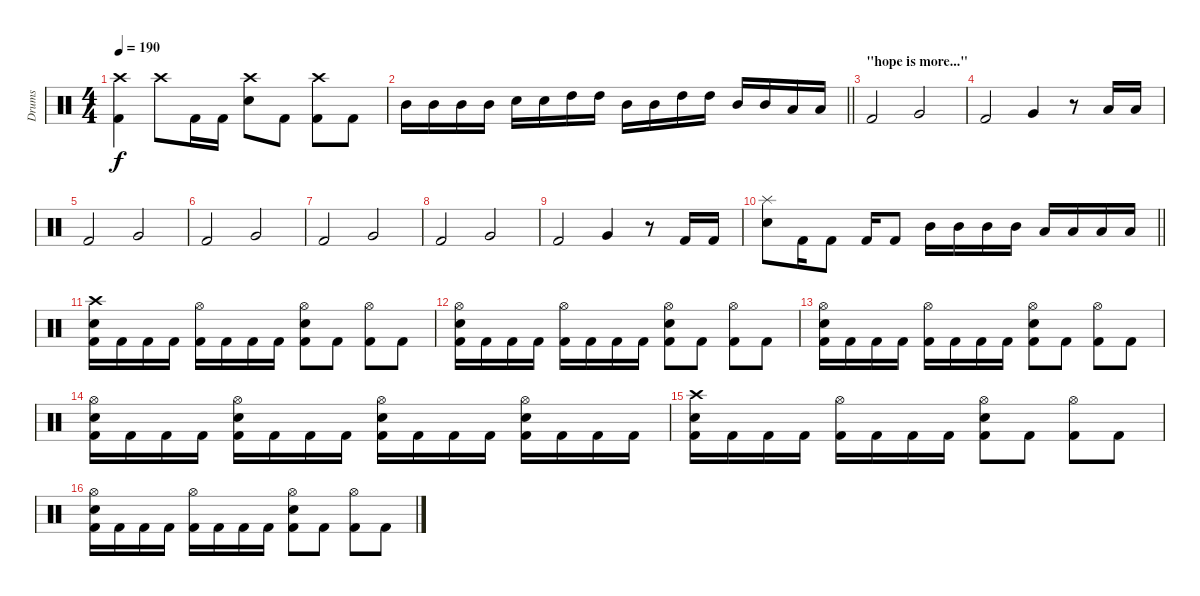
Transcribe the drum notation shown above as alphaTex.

\track ("Drums" "Drums") {instrument percussion}
\staff {score}
\articulation defaults
\ts (4 4)
\tempo 190
\clef neutral
\ks c
("Crash high (hit)" "Kick (hit) 2").4{dy f} "Crash high (hit)".8 "Kick (hit) 2".16 "Kick (hit) 2".16 ("Crash high (hit)" "Snare (hit) 2").8 "Kick (hit) 2".8 ("Crash high (hit)" "Kick (hit) 2").8 "Kick (hit) 2".8 |
\barLineRight lightlight "Mid Tom (hit)".16 "Mid Tom (hit)".16 "Mid Tom (hit)".16 "Mid Tom (hit)".16 "Snare (hit) 2".16 "Snare (hit) 2".16 "High Tom (hit)".16 "High Tom (hit)".16 "Mid Tom (hit)".16 "Mid Tom (hit)".16 "High Tom (hit)".16 "High Tom (hit)".16 "Mid Tom (hit)".16 "Mid Tom (hit)".16 "Low Tom (hit)".16 "Low Tom (hit)".16
|
\section ("" "\"hope is more...\"")
"Kick (hit) 2".2 "Very Low Tom (hit)".2 |
"Kick (hit) 2".2 "Very Low Tom (hit)".4 r.8 "Low Tom (hit)".16 "Low Tom (hit)".16 |
"Kick (hit) 2".2 "Very Low Tom (hit)".2 |
"Kick (hit) 2".2 "Very Low Tom (hit)".2 |
"Kick (hit) 2".2 "Very Low Tom (hit)".2 |
"Kick (hit) 2".2 "Very Low Tom (hit)".2 |
"Kick (hit) 2".2 "Very Low Tom (hit)".4 r.8 "Kick (hit) 2".16 "Kick (hit) 2".16 |
\barLineRight lightlight
("Splash (hit)" "Snare (hit) 2").8 "Kick (hit) 2".16 "Kick (hit) 2".8 "Kick (hit) 2".16 "Kick (hit) 2".8 "Mid Tom (hit)".16 "Mid Tom (hit)".16 "Mid Tom (hit)".16 "Mid Tom (hit)".16 "Low Tom (hit)".16 "Low Tom (hit)".16 "Low Tom (hit)".16 "Low Tom (hit)".16 |
\section ("" "")
("Crash high (hit)" "Snare (hit) 2" "Kick (hit) 2").16 "Kick (hit) 2".16 "Kick (hit) 2".16 "Kick (hit) 2".16 ("Hi-Hat (open)" "Kick (hit) 2").16 "Kick (hit) 2".16 "Kick (hit) 2".16 "Kick (hit) 2".16 ("Hi-Hat (open)" "Snare (hit) 2" "Kick (hit) 2").8 "Kick (hit) 2".8 ("Hi-Hat (open)" "Kick (hit) 2").8 "Kick (hit) 2".8 |
("Hi-Hat (open)" "Snare (hit) 2" "Kick (hit) 2").16 "Kick (hit) 2".16 "Kick (hit) 2".16 "Kick (hit) 2".16 ("Hi-Hat (open)" "Kick (hit) 2").16 "Kick (hit) 2".16 "Kick (hit) 2".16 "Kick (hit) 2".16 ("Hi-Hat (open)" "Snare (hit) 2" "Kick (hit) 2").8 "Kick (hit) 2".8 ("Hi-Hat (open)" "Kick (hit) 2").8 "Kick (hit) 2".8 |
("Hi-Hat (open)" "Snare (hit) 2" "Kick (hit) 2").16 "Kick (hit) 2".16 "Kick (hit) 2".16 "Kick (hit) 2".16 ("Hi-Hat (open)" "Kick (hit) 2").16 "Kick (hit) 2".16 "Kick (hit) 2".16 "Kick (hit) 2".16 ("Hi-Hat (open)" "Snare (hit) 2" "Kick (hit) 2").8 "Kick (hit) 2".8 ("Hi-Hat (open)" "Kick (hit) 2").8 "Kick (hit) 2".8 |
("Hi-Hat (open)" "Snare (hit) 2" "Kick (hit) 2").16 "Kick (hit) 2".16 "Kick (hit) 2".16 "Kick (hit) 2".16 ("Hi-Hat (open)" "Snare (hit) 2" "Kick (hit) 2").16 "Kick (hit) 2".16 "Kick (hit) 2".16 "Kick (hit) 2".16 ("Hi-Hat (open)" "Snare (hit) 2" "Kick (hit) 2").16 "Kick (hit) 2".16 "Kick (hit) 2".16 "Kick (hit) 2".16 ("Hi-Hat (open)" "Snare (hit) 2" "Kick (hit) 2").16 "Kick (hit) 2".16 "Kick (hit) 2".16 "Kick (hit) 2".16 |
("Crash high (hit)" "Snare (hit) 2" "Kick (hit) 2").16 "Kick (hit) 2".16 "Kick (hit) 2".16 "Kick (hit) 2".16 ("Hi-Hat (open)" "Kick (hit) 2").16 "Kick (hit) 2".16 "Kick (hit) 2".16 "Kick (hit) 2".16 ("Hi-Hat (open)" "Snare (hit) 2" "Kick (hit) 2").8 "Kick (hit) 2".8 ("Hi-Hat (open)" "Kick (hit) 2").8 "Kick (hit) 2".8 |
("Hi-Hat (open)" "Snare (hit) 2" "Kick (hit) 2").16 "Kick (hit) 2".16 "Kick (hit) 2".16 "Kick (hit) 2".16 ("Hi-Hat (open)" "Kick (hit) 2").16 "Kick (hit) 2".16 "Kick (hit) 2".16 "Kick (hit) 2".16 ("Hi-Hat (open)" "Snare (hit) 2" "Kick (hit) 2").8 "Kick (hit) 2".8 ("Hi-Hat (open)" "Kick (hit) 2").8 "Kick (hit) 2".8
